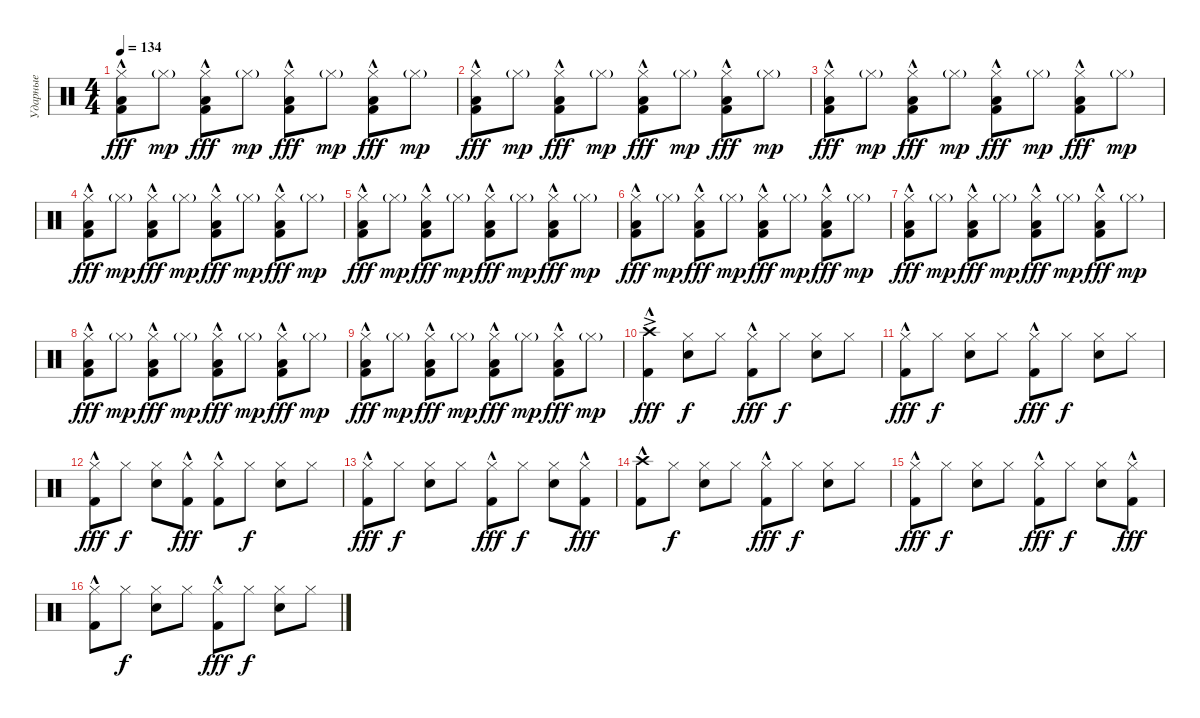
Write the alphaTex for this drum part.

\track ("Ударные" "Ударные") {instrument percussion}
\staff {score}
\articulation defaults
\ts (4 4)
\tempo 134
\clef neutral
\ks c
("Hi-Hat (closed)" "Low Floor Tom (hit)"{hac} "Kick (hit) 2"{hac}).8{dy fff} "Hi-Hat (closed)"{g}.8{dy mp} ("Hi-Hat (closed)" "Low Floor Tom (hit)"{hac} "Kick (hit) 2"{hac}).8{dy fff} "Hi-Hat (closed)"{g}.8{dy mp} ("Hi-Hat (closed)" "Low Floor Tom (hit)"{hac} "Kick (hit) 2"{hac}).8{dy fff} "Hi-Hat (closed)"{g}.8{dy mp} ("Hi-Hat (closed)" "Low Floor Tom (hit)"{hac} "Kick (hit) 2"{hac}).8{dy fff} "Hi-Hat (closed)"{g}.8{dy mp} |
("Hi-Hat (closed)" "Low Floor Tom (hit)"{hac} "Kick (hit) 2"{hac}).8{dy fff} "Hi-Hat (closed)"{g}.8{dy mp} ("Hi-Hat (closed)" "Low Floor Tom (hit)"{hac} "Kick (hit) 2"{hac}).8{dy fff} "Hi-Hat (closed)"{g}.8{dy mp} ("Hi-Hat (closed)" "Low Floor Tom (hit)"{hac} "Kick (hit) 2"{hac}).8{dy fff} "Hi-Hat (closed)"{g}.8{dy mp} ("Hi-Hat (closed)" "Low Floor Tom (hit)"{hac} "Kick (hit) 2"{hac}).8{dy fff} "Hi-Hat (closed)"{g}.8{dy mp} |
("Hi-Hat (closed)" "Low Floor Tom (hit)"{hac} "Kick (hit) 2"{hac}).8{dy fff} "Hi-Hat (closed)"{g}.8{dy mp} ("Hi-Hat (closed)" "Low Floor Tom (hit)"{hac} "Kick (hit) 2"{hac}).8{dy fff} "Hi-Hat (closed)"{g}.8{dy mp} ("Hi-Hat (closed)" "Low Floor Tom (hit)"{hac} "Kick (hit) 2"{hac}).8{dy fff} "Hi-Hat (closed)"{g}.8{dy mp} ("Hi-Hat (closed)" "Low Floor Tom (hit)"{hac} "Kick (hit) 2"{hac}).8{dy fff} "Hi-Hat (closed)"{g}.8{dy mp} |
("Hi-Hat (closed)" "Low Floor Tom (hit)"{hac} "Kick (hit) 2"{hac}).8{dy fff} "Hi-Hat (closed)"{g}.8{dy mp} ("Hi-Hat (closed)" "Low Floor Tom (hit)"{hac} "Kick (hit) 2"{hac}).8{dy fff} "Hi-Hat (closed)"{g}.8{dy mp} ("Hi-Hat (closed)" "Low Floor Tom (hit)"{hac} "Kick (hit) 2"{hac}).8{dy fff} "Hi-Hat (closed)"{g}.8{dy mp} ("Hi-Hat (closed)" "Low Floor Tom (hit)"{hac} "Kick (hit) 2"{hac}).8{dy fff} "Hi-Hat (closed)"{g}.8{dy mp} |
("Hi-Hat (closed)" "Low Floor Tom (hit)"{hac} "Kick (hit) 2"{hac}).8{dy fff} "Hi-Hat (closed)"{g}.8{dy mp} ("Hi-Hat (closed)" "Low Floor Tom (hit)"{hac} "Kick (hit) 2"{hac}).8{dy fff} "Hi-Hat (closed)"{g}.8{dy mp} ("Hi-Hat (closed)" "Low Floor Tom (hit)"{hac} "Kick (hit) 2"{hac}).8{dy fff} "Hi-Hat (closed)"{g}.8{dy mp} ("Hi-Hat (closed)" "Low Floor Tom (hit)"{hac} "Kick (hit) 2"{hac}).8{dy fff} "Hi-Hat (closed)"{g}.8{dy mp} |
("Hi-Hat (closed)" "Low Floor Tom (hit)"{hac} "Kick (hit) 2"{hac}).8{dy fff} "Hi-Hat (closed)"{g}.8{dy mp} ("Hi-Hat (closed)" "Low Floor Tom (hit)"{hac} "Kick (hit) 2"{hac}).8{dy fff} "Hi-Hat (closed)"{g}.8{dy mp} ("Hi-Hat (closed)" "Low Floor Tom (hit)"{hac} "Kick (hit) 2"{hac}).8{dy fff} "Hi-Hat (closed)"{g}.8{dy mp} ("Hi-Hat (closed)" "Low Floor Tom (hit)"{hac} "Kick (hit) 2"{hac}).8{dy fff} "Hi-Hat (closed)"{g}.8{dy mp} |
("Hi-Hat (closed)" "Low Floor Tom (hit)"{hac} "Kick (hit) 2"{hac}).8{dy fff} "Hi-Hat (closed)"{g}.8{dy mp} ("Hi-Hat (closed)" "Low Floor Tom (hit)"{hac} "Kick (hit) 2"{hac}).8{dy fff} "Hi-Hat (closed)"{g}.8{dy mp} ("Hi-Hat (closed)" "Low Floor Tom (hit)"{hac} "Kick (hit) 2"{hac}).8{dy fff} "Hi-Hat (closed)"{g}.8{dy mp} ("Hi-Hat (closed)" "Low Floor Tom (hit)"{hac} "Kick (hit) 2"{hac}).8{dy fff} "Hi-Hat (closed)"{g}.8{dy mp} |
("Hi-Hat (closed)" "Low Floor Tom (hit)"{hac} "Kick (hit) 2"{hac}).8{dy fff} "Hi-Hat (closed)"{g}.8{dy mp} ("Hi-Hat (closed)" "Low Floor Tom (hit)"{hac} "Kick (hit) 2"{hac}).8{dy fff} "Hi-Hat (closed)"{g}.8{dy mp} ("Hi-Hat (closed)" "Low Floor Tom (hit)"{hac} "Kick (hit) 2"{hac}).8{dy fff} "Hi-Hat (closed)"{g}.8{dy mp} ("Hi-Hat (closed)" "Low Floor Tom (hit)"{hac} "Kick (hit) 2"{hac}).8{dy fff} "Hi-Hat (closed)"{g}.8{dy mp} |
("Hi-Hat (closed)" "Low Floor Tom (hit)"{hac} "Kick (hit) 2"{hac}).8{dy fff} "Hi-Hat (closed)"{g}.8{dy mp} ("Hi-Hat (closed)" "Low Floor Tom (hit)"{hac} "Kick (hit) 2"{hac}).8{dy fff} "Hi-Hat (closed)"{g}.8{dy mp} ("Hi-Hat (closed)" "Low Floor Tom (hit)"{hac} "Kick (hit) 2"{hac}).8{dy fff} "Hi-Hat (closed)"{g}.8{dy mp} ("Hi-Hat (closed)" "Low Floor Tom (hit)"{hac} "Kick (hit) 2"{hac}).8{dy fff} "Hi-Hat (closed)"{g}.8{dy mp} |
("Crash high (hit)"{ac} "Kick (hit) 2"{hac}).4{dy fff} ("Hi-Hat (closed)" "Snare (hit) 2").8{dy f} "Hi-Hat (closed)".8 ("Hi-Hat (closed)" "Kick (hit) 2"{hac}).8{dy fff} "Hi-Hat (closed)".8{dy f} ("Hi-Hat (closed)" "Snare (hit) 2").8 "Hi-Hat (closed)".8 |
("Hi-Hat (closed)" "Kick (hit) 2"{hac}).8{dy fff} "Hi-Hat (closed)".8{dy f} ("Hi-Hat (closed)" "Snare (hit) 2").8 "Hi-Hat (closed)".8 ("Hi-Hat (closed)" "Kick (hit) 2"{hac}).8{dy fff} "Hi-Hat (closed)".8{dy f} ("Hi-Hat (closed)" "Snare (hit) 2").8 "Hi-Hat (closed)".8 |
("Hi-Hat (closed)" "Kick (hit) 2"{hac}).8{dy fff} "Hi-Hat (closed)".8{dy f} ("Hi-Hat (closed)" "Snare (hit) 2").8 ("Hi-Hat (closed)" "Kick (hit) 2"{hac}).8{dy fff} ("Hi-Hat (closed)" "Kick (hit) 2"{hac}).8 "Hi-Hat (closed)".8{dy f} ("Hi-Hat (closed)" "Snare (hit) 2").8 "Hi-Hat (closed)".8 |
("Hi-Hat (closed)" "Kick (hit) 2"{hac}).8{dy fff} "Hi-Hat (closed)".8{dy f} ("Hi-Hat (closed)" "Snare (hit) 2").8 "Hi-Hat (closed)".8 ("Hi-Hat (closed)" "Kick (hit) 2"{hac}).8{dy fff} "Hi-Hat (closed)".8{dy f} ("Hi-Hat (closed)" "Snare (hit) 2").8 ("Hi-Hat (closed)" "Kick (hit) 2"{hac}).8{dy fff} |
("Crash high (hit)" "Kick (hit) 2"{hac}).8 "Hi-Hat (closed)".8{dy f} ("Hi-Hat (closed)" "Snare (hit) 2").8 "Hi-Hat (closed)".8 ("Hi-Hat (closed)" "Kick (hit) 2"{hac}).8{dy fff} "Hi-Hat (closed)".8{dy f} ("Hi-Hat (closed)" "Snare (hit) 2").8 "Hi-Hat (closed)".8 |
("Hi-Hat (closed)" "Kick (hit) 2"{hac}).8{dy fff} "Hi-Hat (closed)".8{dy f} ("Hi-Hat (closed)" "Snare (hit) 2").8 "Hi-Hat (closed)".8 ("Hi-Hat (closed)" "Kick (hit) 2"{hac}).8{dy fff} "Hi-Hat (closed)".8{dy f} ("Hi-Hat (closed)" "Snare (hit) 2").8 ("Hi-Hat (closed)" "Kick (hit) 2"{hac}).8{dy fff} |
("Hi-Hat (closed)" "Kick (hit) 2"{hac}).8 "Hi-Hat (closed)".8{dy f} ("Hi-Hat (closed)" "Snare (hit) 2").8 "Hi-Hat (closed)".8 ("Hi-Hat (closed)" "Kick (hit) 2"{hac}).8{dy fff} "Hi-Hat (closed)".8{dy f} ("Hi-Hat (closed)" "Snare (hit) 2").8 "Hi-Hat (closed)".8
